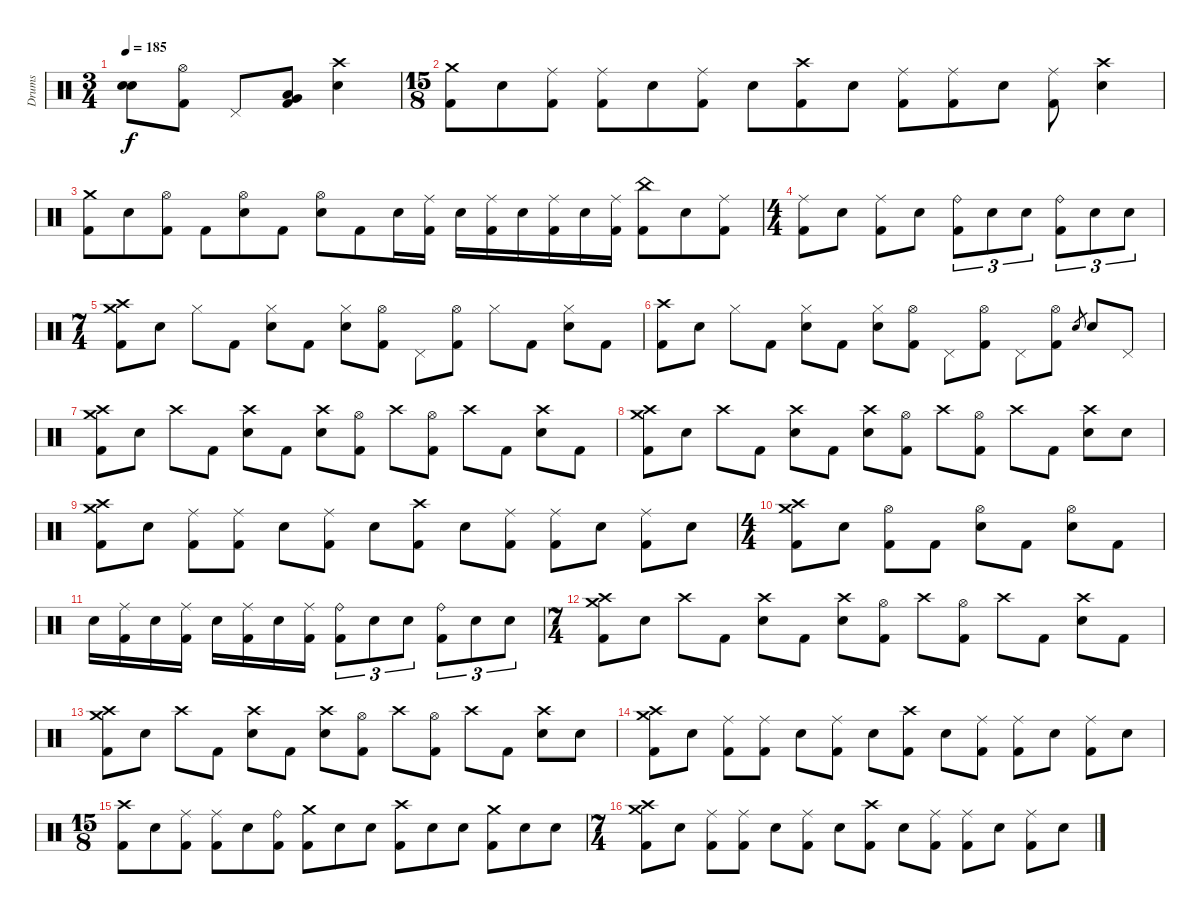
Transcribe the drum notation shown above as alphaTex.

\track ("Drums" "Drums") {instrument percussion}
\staff {score}
\articulation defaults
\ts (3 4)
\tempo 185
\clef neutral
\ks c
("Electric Snare (hit)" "Electric Snare (hit)").8{bu 60 dy f volume 14} ("Hi-Hat (open)" "Kick (hit) 2").8 "Pedal Hi-Hat (hit)".8 ("Very Low Tom (hit)" "Low Floor Tom (hit)" "Kick (hit) 2").8 ("Crash high (hit)" "Electric Snare (hit)").4 |
\ts (15 8)
("Crash medium (hit)" "Kick (hit) 2").8 "Electric Snare (hit)".8 ("Ride (middle)" "Kick (hit) 2").8 ("Ride (middle)" "Kick (hit) 2").8 "Electric Snare (hit)".8 ("Ride (middle)" "Kick (hit) 2").8 "Electric Snare (hit)".8 ("Crash high (hit)" "Kick (hit) 2").8 "Electric Snare (hit)".8 ("Ride (middle)" "Kick (hit) 2").8 ("Ride (middle)" "Kick (hit) 2").8 "Electric Snare (hit)".8 ("Ride (middle)" "Kick (hit) 2").8 ("Crash high (hit)" "Electric Snare (hit)").4 |
("Crash medium (hit)" "Kick (hit) 2").8 "Electric Snare (hit)".8 ("Hi-Hat (open)" "Kick (hit) 2").8 "Kick (hit) 2".8 ("Hi-Hat (open)" "Electric Snare (hit)").8 "Kick (hit) 2".8 ("Hi-Hat (open)" "Electric Snare (hit)").8 "Kick (hit) 2".8 "Electric Snare (hit)".16 ("Ride (middle)" "Kick (hit) 2").16 "Electric Snare (hit)".16 ("Ride (middle)" "Kick (hit) 2").16 "Electric Snare (hit)".16 ("Ride (middle)" "Kick (hit) 2").16 "Electric Snare (hit)".16 ("Ride (middle)" "Kick (hit) 2").16 ("China (hit)" "Kick (hit) 2").8 "Electric Snare (hit)".8 ("Ride (middle)" "Kick (hit) 2").8 |
\ts (4 4)
("Ride (middle)" "Kick (hit) 2").8 "Electric Snare (hit)".8 ("Ride (middle)" "Kick (hit) 2").8 "Electric Snare (hit)".8 ("Ride (bell)" "Kick (hit) 2").8{tu (3 2)} "Electric Snare (hit)".8{tu (3 2)} "Electric Snare (hit)".8{tu (3 2)} ("Ride (bell)" "Kick (hit) 2").8{tu (3 2)} "Electric Snare (hit)".8{tu (3 2)} "Electric Snare (hit)".8{tu (3 2)} |
\ts (7 4)
("Crash medium (hit)" "Crash high (hit)" "Kick (hit) 2").8 "Electric Snare (hit)".8 "Hi-Hat (closed)".8 "Kick (hit) 2".8 ("Hi-Hat (closed)" "Electric Snare (hit)").8 "Kick (hit) 2".8 ("Hi-Hat (closed)" "Electric Snare (hit)").8 ("Hi-Hat (open)" "Kick (hit) 2").8 "Pedal Hi-Hat (hit)".8 ("Hi-Hat (open)" "Kick (hit) 2").8 "Hi-Hat (closed)".8 "Kick (hit) 2".8 ("Hi-Hat (closed)" "Electric Snare (hit)").8 "Kick (hit) 2".8 |
("Crash high (hit)" "Kick (hit) 2").8 "Electric Snare (hit)".8 "Hi-Hat (closed)".8 "Kick (hit) 2".8 ("Hi-Hat (closed)" "Electric Snare (hit)").8 "Kick (hit) 2".8 ("Hi-Hat (closed)" "Electric Snare (hit)").8 ("Hi-Hat (open)" "Kick (hit) 2").8 "Pedal Hi-Hat (hit)".8 ("Hi-Hat (open)" "Kick (hit) 2").8 "Pedal Hi-Hat (hit)".8 ("Hi-Hat (open)" "Kick (hit) 2").8 "Electric Snare (hit)".8{gr} "Electric Snare (hit)".8 "Pedal Hi-Hat (hit)".8 |
("Crash medium (hit)" "Crash high (hit)" "Kick (hit) 2").8 "Electric Snare (hit)".8 "Crash high (hit)".8 "Kick (hit) 2".8 ("Crash high (hit)" "Electric Snare (hit)").8 "Kick (hit) 2".8 ("Crash high (hit)" "Electric Snare (hit)").8 ("Hi-Hat (open)" "Kick (hit) 2").8 "Crash high (hit)".8 ("Hi-Hat (open)" "Kick (hit) 2").8 "Crash high (hit)".8 "Kick (hit) 2".8 ("Crash high (hit)" "Electric Snare (hit)").8 "Kick (hit) 2".8 |
("Crash medium (hit)" "Crash high (hit)" "Kick (hit) 2").8 "Electric Snare (hit)".8 "Crash high (hit)".8 "Kick (hit) 2".8 ("Crash high (hit)" "Electric Snare (hit)").8 "Kick (hit) 2".8 ("Crash high (hit)" "Electric Snare (hit)").8 ("Hi-Hat (open)" "Kick (hit) 2").8 "Crash high (hit)".8 ("Hi-Hat (open)" "Kick (hit) 2").8 "Crash high (hit)".8 "Kick (hit) 2".8 ("Crash high (hit)" "Electric Snare (hit)").8 "Electric Snare (hit)".8 |
("Crash medium (hit)" "Crash high (hit)" "Kick (hit) 2").8 "Electric Snare (hit)".8 ("Ride (middle)" "Kick (hit) 2").8 ("Ride (middle)" "Kick (hit) 2").8 "Electric Snare (hit)".8 ("Ride (middle)" "Kick (hit) 2").8 "Electric Snare (hit)".8 ("Crash high (hit)" "Kick (hit) 2").8 "Electric Snare (hit)".8 ("Ride (middle)" "Kick (hit) 2").8 ("Ride (middle)" "Kick (hit) 2").8 "Electric Snare (hit)".8 ("Ride (middle)" "Kick (hit) 2").8 "Electric Snare (hit)".8 |
\ts (4 4)
("Crash medium (hit)" "Crash high (hit)" "Kick (hit) 2").8 "Electric Snare (hit)".8 ("Hi-Hat (open)" "Kick (hit) 2").8 "Kick (hit) 2".8 ("Hi-Hat (open)" "Electric Snare (hit)").8 "Kick (hit) 2".8 ("Hi-Hat (open)" "Electric Snare (hit)").8 "Kick (hit) 2".8 |
"Electric Snare (hit)".16 ("Ride (middle)" "Kick (hit) 2").16 "Electric Snare (hit)".16 ("Ride (middle)" "Kick (hit) 2").16 "Electric Snare (hit)".16 ("Ride (middle)" "Kick (hit) 2").16 "Electric Snare (hit)".16 ("Ride (middle)" "Kick (hit) 2").16 ("Ride (bell)" "Kick (hit) 2").8{tu (3 2)} "Electric Snare (hit)".8{tu (3 2)} "Electric Snare (hit)".8{tu (3 2)} ("Ride (bell)" "Kick (hit) 2").8{tu (3 2)} "Electric Snare (hit)".8{tu (3 2)} "Electric Snare (hit)".8{tu (3 2)} |
\ts (7 4)
("Crash medium (hit)" "Crash high (hit)" "Kick (hit) 2").8 "Electric Snare (hit)".8 "Crash high (hit)".8 "Kick (hit) 2".8 ("Crash high (hit)" "Electric Snare (hit)").8 "Kick (hit) 2".8 ("Crash high (hit)" "Electric Snare (hit)").8 ("Hi-Hat (open)" "Kick (hit) 2").8 "Crash high (hit)".8 ("Hi-Hat (open)" "Kick (hit) 2").8 "Crash high (hit)".8 "Kick (hit) 2".8 ("Crash high (hit)" "Electric Snare (hit)").8 "Kick (hit) 2".8 |
("Crash medium (hit)" "Crash high (hit)" "Kick (hit) 2").8 "Electric Snare (hit)".8 "Crash high (hit)".8 "Kick (hit) 2".8 ("Crash high (hit)" "Electric Snare (hit)").8 "Kick (hit) 2".8 ("Crash high (hit)" "Electric Snare (hit)").8 ("Hi-Hat (open)" "Kick (hit) 2").8 "Crash high (hit)".8 ("Hi-Hat (open)" "Kick (hit) 2").8 "Crash high (hit)".8 "Kick (hit) 2".8 ("Crash high (hit)" "Electric Snare (hit)").8 "Electric Snare (hit)".8 |
("Crash medium (hit)" "Crash high (hit)" "Kick (hit) 2").8 "Electric Snare (hit)".8 ("Ride (middle)" "Kick (hit) 2").8 ("Ride (middle)" "Kick (hit) 2").8 "Electric Snare (hit)".8 ("Ride (middle)" "Kick (hit) 2").8 "Electric Snare (hit)".8 ("Crash high (hit)" "Kick (hit) 2").8 "Electric Snare (hit)".8 ("Ride (middle)" "Kick (hit) 2").8 ("Ride (middle)" "Kick (hit) 2").8 "Electric Snare (hit)".8 ("Ride (middle)" "Kick (hit) 2").8 "Electric Snare (hit)".8 |
\ts (15 8)
("Crash high (hit)" "Kick (hit) 2").8 "Electric Snare (hit)".8 ("Ride (middle)" "Kick (hit) 2").8 ("Ride (middle)" "Kick (hit) 2").8 "Electric Snare (hit)".8 ("Ride (bell)" "Kick (hit) 2").8 ("Crash medium (hit)" "Kick (hit) 2").8 "Electric Snare (hit)".8 "Electric Snare (hit)".8 ("Crash high (hit)" "Kick (hit) 2").8 "Electric Snare (hit)".8 "Electric Snare (hit)".8 ("Crash medium (hit)" "Kick (hit) 2").8 "Electric Snare (hit)".8 "Electric Snare (hit)".8 |
\ts (7 4)
("Crash medium (hit)" "Crash high (hit)" "Kick (hit) 2").8 "Electric Snare (hit)".8 ("Ride (middle)" "Kick (hit) 2").8 ("Ride (middle)" "Kick (hit) 2").8 "Electric Snare (hit)".8 ("Ride (middle)" "Kick (hit) 2").8 "Electric Snare (hit)".8 ("Crash high (hit)" "Kick (hit) 2").8 "Electric Snare (hit)".8 ("Ride (middle)" "Kick (hit) 2").8 ("Ride (middle)" "Kick (hit) 2").8 "Electric Snare (hit)".8 ("Ride (middle)" "Kick (hit) 2").8 "Electric Snare (hit)".8
